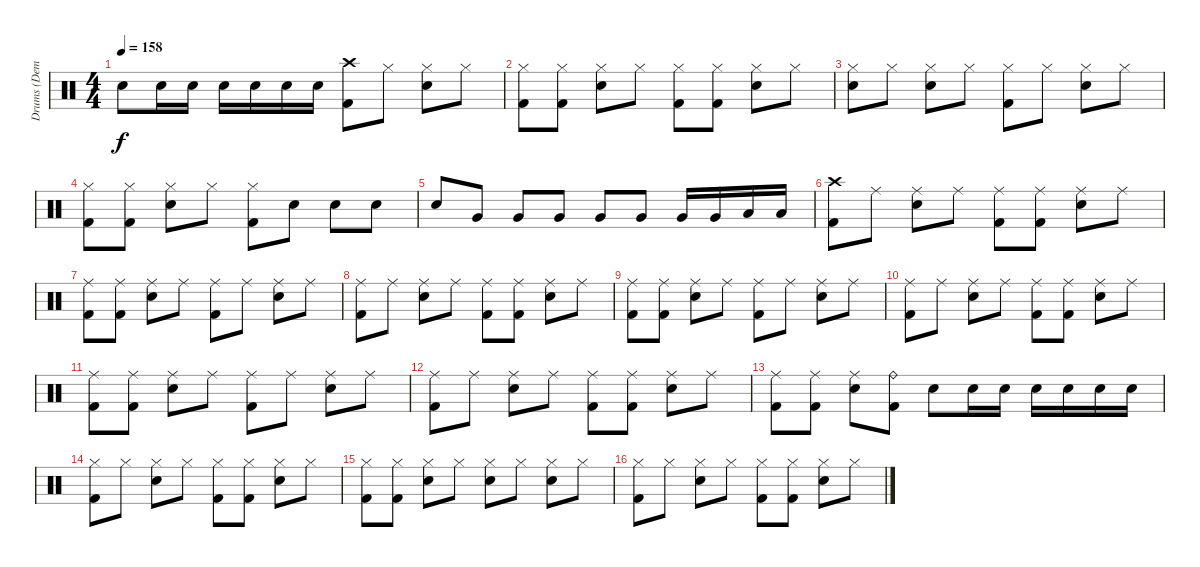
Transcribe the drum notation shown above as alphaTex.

\track ("Drums (Demetra)" "Drums (Dem") {instrument percussion}
\staff {score}
\articulation defaults
\ts (4 4)
\tempo 158
\clef neutral
\ks c "Snare (hit) 2".8{dy f} "Snare (hit) 2".16 "Snare (hit) 2".16 "Snare (hit) 2".16 "Snare (hit) 2".16 "Snare (hit) 2".16 "Snare (hit) 2".16
("Crash high (hit)" "Kick (hit) 2").8 "Hi-Hat (closed)".8 ("Hi-Hat (closed)" "Snare (hit) 2").8 "Hi-Hat (closed)".8 |
("Hi-Hat (closed)" "Kick (hit) 2").8 ("Hi-Hat (closed)" "Kick (hit) 2").8 ("Hi-Hat (closed)" "Snare (hit) 2").8 "Hi-Hat (closed)".8 ("Hi-Hat (closed)" "Kick (hit) 2").8 ("Hi-Hat (closed)" "Kick (hit) 2").8 ("Hi-Hat (closed)" "Snare (hit) 2").8 "Hi-Hat (closed)".8 |
("Hi-Hat (closed)" "Snare (hit) 2").8 "Hi-Hat (closed)".8 ("Hi-Hat (closed)" "Snare (hit) 2").8 "Hi-Hat (closed)".8 ("Hi-Hat (closed)" "Kick (hit) 2").8 "Hi-Hat (closed)".8 ("Hi-Hat (closed)" "Snare (hit) 2").8 "Hi-Hat (closed)".8 |
("Hi-Hat (closed)" "Kick (hit) 2").8 ("Hi-Hat (closed)" "Kick (hit) 2").8 ("Hi-Hat (closed)" "Snare (hit) 2").8 "Hi-Hat (closed)".8 ("Hi-Hat (closed)" "Kick (hit) 2").8 "Snare (hit) 2".8 "Snare (hit) 2".8 "Snare (hit) 2".8 |
"Snare (hit) 2".8 "Very Low Tom (hit)".8 "Very Low Tom (hit)".8 "Very Low Tom (hit)".8 "Very Low Tom (hit)".8 "Very Low Tom (hit)".8 "Very Low Tom (hit)".16 "Very Low Tom (hit)".16 "Low Floor Tom (hit)".16 "Low Floor Tom (hit)".16 |
("Crash high (hit)" "Kick (hit) 2").8 "Ride (middle)".8 ("Ride (middle)" "Snare (hit) 2").8 "Ride (middle)".8 ("Ride (middle)" "Kick (hit) 2").8 ("Ride (middle)" "Kick (hit) 2").8 ("Ride (middle)" "Snare (hit) 2").8 "Ride (middle)".8 |
("Ride (middle)" "Kick (hit) 2").8 ("Ride (middle)" "Kick (hit) 2").8 ("Ride (middle)" "Snare (hit) 2").8 "Ride (middle)".8 ("Ride (middle)" "Kick (hit) 2").8 "Ride (middle)".8 ("Ride (middle)" "Snare (hit) 2").8 "Ride (middle)".8 |
("Ride (middle)" "Kick (hit) 2").8 "Ride (middle)".8 ("Ride (middle)" "Snare (hit) 2").8 "Ride (middle)".8 ("Ride (middle)" "Kick (hit) 2").8 ("Ride (middle)" "Kick (hit) 2").8 ("Ride (middle)" "Snare (hit) 2").8 "Ride (middle)".8 |
("Ride (middle)" "Kick (hit) 2").8 ("Ride (middle)" "Kick (hit) 2").8 ("Ride (middle)" "Snare (hit) 2").8 "Ride (middle)".8 ("Ride (middle)" "Kick (hit) 2").8 "Ride (middle)".8 ("Ride (middle)" "Snare (hit) 2").8 "Ride (middle)".8 |
("Ride (middle)" "Kick (hit) 2").8 "Ride (middle)".8 ("Ride (middle)" "Snare (hit) 2").8 "Ride (middle)".8 ("Ride (middle)" "Kick (hit) 2").8 ("Ride (middle)" "Kick (hit) 2").8 ("Ride (middle)" "Snare (hit) 2").8 "Ride (middle)".8 |
("Ride (middle)" "Kick (hit) 2").8 ("Ride (middle)" "Kick (hit) 2").8 ("Ride (middle)" "Snare (hit) 2").8 "Ride (middle)".8 ("Ride (middle)" "Kick (hit) 2").8 "Ride (middle)".8 ("Ride (middle)" "Snare (hit) 2").8 "Ride (middle)".8 |
("Ride (middle)" "Kick (hit) 2").8 "Ride (middle)".8 ("Ride (middle)" "Snare (hit) 2").8 "Ride (middle)".8 ("Ride (middle)" "Kick (hit) 2").8 ("Ride (middle)" "Kick (hit) 2").8 ("Ride (middle)" "Snare (hit) 2").8 "Ride (middle)".8 |
("Ride (middle)" "Kick (hit) 2").8 ("Ride (middle)" "Kick (hit) 2").8 ("Ride (middle)" "Snare (hit) 2").8 ("Ride (bell)" "Kick (hit) 2").8 "Snare (hit) 2".8 "Snare (hit) 2".16 "Snare (hit) 2".16 "Snare (hit) 2".16 "Snare (hit) 2".16 "Snare (hit) 2".16 "Snare (hit) 2".16 |
("Hi-Hat (closed)" "Kick (hit) 2").8 "Hi-Hat (closed)".8 ("Hi-Hat (closed)" "Snare (hit) 2").8 "Hi-Hat (closed)".8 ("Hi-Hat (closed)" "Kick (hit) 2").8 ("Hi-Hat (closed)" "Kick (hit) 2").8 ("Hi-Hat (closed)" "Snare (hit) 2").8 "Hi-Hat (closed)".8 |
("Hi-Hat (closed)" "Kick (hit) 2").8 ("Hi-Hat (closed)" "Kick (hit) 2").8 ("Hi-Hat (closed)" "Snare (hit) 2").8 "Hi-Hat (closed)".8 ("Hi-Hat (closed)" "Snare (hit) 2").8 "Hi-Hat (closed)".8 ("Hi-Hat (closed)" "Snare (hit) 2").8 "Hi-Hat (closed)".8 |
("Hi-Hat (closed)" "Kick (hit) 2").8 "Hi-Hat (closed)".8 ("Hi-Hat (closed)" "Snare (hit) 2").8 "Hi-Hat (closed)".8 ("Hi-Hat (closed)" "Kick (hit) 2").8 ("Hi-Hat (closed)" "Kick (hit) 2").8 ("Hi-Hat (closed)" "Snare (hit) 2").8 "Hi-Hat (closed)".8
